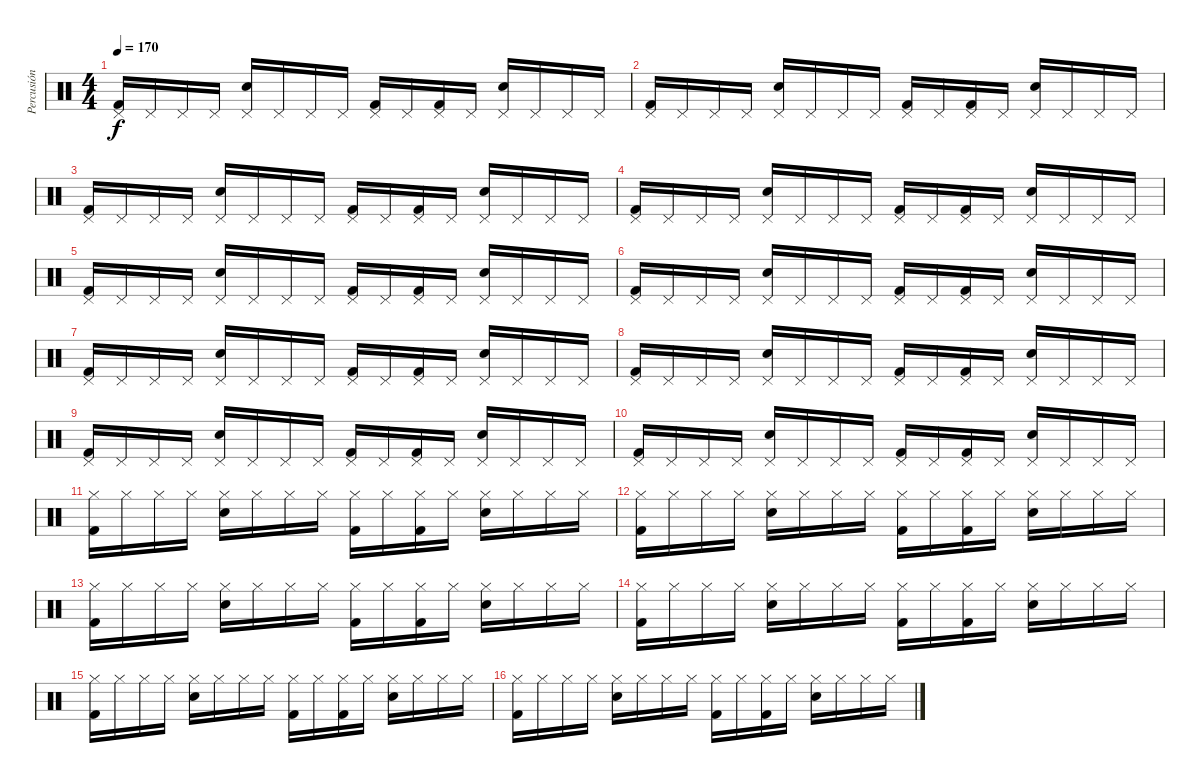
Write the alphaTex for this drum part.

\track ("Percusión" "Percusión") {instrument percussion}
\staff {score}
\articulation defaults
\ts (4 4)
\tempo 170
\clef neutral
\ks c
("Pedal Hi-Hat (hit)" "Kick (hit) 2").16{dy f} "Pedal Hi-Hat (hit)".16 "Pedal Hi-Hat (hit)".16 "Pedal Hi-Hat (hit)".16 ("Pedal Hi-Hat (hit)" "Electric Snare (hit)").16 "Pedal Hi-Hat (hit)".16 "Pedal Hi-Hat (hit)".16 "Pedal Hi-Hat (hit)".16 ("Pedal Hi-Hat (hit)" "Kick (hit) 2").16 "Pedal Hi-Hat (hit)".16 ("Pedal Hi-Hat (hit)" "Kick (hit) 2").16 "Pedal Hi-Hat (hit)".16 ("Pedal Hi-Hat (hit)" "Electric Snare (hit)").16 "Pedal Hi-Hat (hit)".16 "Pedal Hi-Hat (hit)".16 "Pedal Hi-Hat (hit)".16 |
("Pedal Hi-Hat (hit)" "Kick (hit) 2").16 "Pedal Hi-Hat (hit)".16 "Pedal Hi-Hat (hit)".16 "Pedal Hi-Hat (hit)".16 ("Pedal Hi-Hat (hit)" "Electric Snare (hit)").16 "Pedal Hi-Hat (hit)".16 "Pedal Hi-Hat (hit)".16 "Pedal Hi-Hat (hit)".16 ("Pedal Hi-Hat (hit)" "Kick (hit) 2").16 "Pedal Hi-Hat (hit)".16 ("Pedal Hi-Hat (hit)" "Kick (hit) 2").16 "Pedal Hi-Hat (hit)".16 ("Pedal Hi-Hat (hit)" "Electric Snare (hit)").16 "Pedal Hi-Hat (hit)".16 "Pedal Hi-Hat (hit)".16 "Pedal Hi-Hat (hit)".16 |
("Pedal Hi-Hat (hit)" "Kick (hit) 2").16 "Pedal Hi-Hat (hit)".16 "Pedal Hi-Hat (hit)".16 "Pedal Hi-Hat (hit)".16 ("Pedal Hi-Hat (hit)" "Electric Snare (hit)").16 "Pedal Hi-Hat (hit)".16 "Pedal Hi-Hat (hit)".16 "Pedal Hi-Hat (hit)".16 ("Pedal Hi-Hat (hit)" "Kick (hit) 2").16 "Pedal Hi-Hat (hit)".16 ("Pedal Hi-Hat (hit)" "Kick (hit) 2").16 "Pedal Hi-Hat (hit)".16 ("Pedal Hi-Hat (hit)" "Electric Snare (hit)").16 "Pedal Hi-Hat (hit)".16 "Pedal Hi-Hat (hit)".16 "Pedal Hi-Hat (hit)".16 |
("Pedal Hi-Hat (hit)" "Kick (hit) 2").16 "Pedal Hi-Hat (hit)".16 "Pedal Hi-Hat (hit)".16 "Pedal Hi-Hat (hit)".16 ("Pedal Hi-Hat (hit)" "Electric Snare (hit)").16 "Pedal Hi-Hat (hit)".16 "Pedal Hi-Hat (hit)".16 "Pedal Hi-Hat (hit)".16 ("Pedal Hi-Hat (hit)" "Kick (hit) 2").16 "Pedal Hi-Hat (hit)".16 ("Pedal Hi-Hat (hit)" "Kick (hit) 2").16 "Pedal Hi-Hat (hit)".16 ("Pedal Hi-Hat (hit)" "Electric Snare (hit)").16 "Pedal Hi-Hat (hit)".16 "Pedal Hi-Hat (hit)".16 "Pedal Hi-Hat (hit)".16 |
("Pedal Hi-Hat (hit)" "Kick (hit) 2").16 "Pedal Hi-Hat (hit)".16 "Pedal Hi-Hat (hit)".16 "Pedal Hi-Hat (hit)".16 ("Pedal Hi-Hat (hit)" "Electric Snare (hit)").16 "Pedal Hi-Hat (hit)".16 "Pedal Hi-Hat (hit)".16 "Pedal Hi-Hat (hit)".16 ("Pedal Hi-Hat (hit)" "Kick (hit) 2").16 "Pedal Hi-Hat (hit)".16 ("Pedal Hi-Hat (hit)" "Kick (hit) 2").16 "Pedal Hi-Hat (hit)".16 ("Pedal Hi-Hat (hit)" "Electric Snare (hit)").16 "Pedal Hi-Hat (hit)".16 "Pedal Hi-Hat (hit)".16 "Pedal Hi-Hat (hit)".16 |
("Pedal Hi-Hat (hit)" "Kick (hit) 2").16 "Pedal Hi-Hat (hit)".16 "Pedal Hi-Hat (hit)".16 "Pedal Hi-Hat (hit)".16 ("Pedal Hi-Hat (hit)" "Electric Snare (hit)").16 "Pedal Hi-Hat (hit)".16 "Pedal Hi-Hat (hit)".16 "Pedal Hi-Hat (hit)".16 ("Pedal Hi-Hat (hit)" "Kick (hit) 2").16 "Pedal Hi-Hat (hit)".16 ("Pedal Hi-Hat (hit)" "Kick (hit) 2").16 "Pedal Hi-Hat (hit)".16 ("Pedal Hi-Hat (hit)" "Electric Snare (hit)").16 "Pedal Hi-Hat (hit)".16 "Pedal Hi-Hat (hit)".16 "Pedal Hi-Hat (hit)".16 |
("Pedal Hi-Hat (hit)" "Kick (hit) 2").16 "Pedal Hi-Hat (hit)".16 "Pedal Hi-Hat (hit)".16 "Pedal Hi-Hat (hit)".16 ("Pedal Hi-Hat (hit)" "Electric Snare (hit)").16 "Pedal Hi-Hat (hit)".16 "Pedal Hi-Hat (hit)".16 "Pedal Hi-Hat (hit)".16 ("Pedal Hi-Hat (hit)" "Kick (hit) 2").16 "Pedal Hi-Hat (hit)".16 ("Pedal Hi-Hat (hit)" "Kick (hit) 2").16 "Pedal Hi-Hat (hit)".16 ("Pedal Hi-Hat (hit)" "Electric Snare (hit)").16 "Pedal Hi-Hat (hit)".16 "Pedal Hi-Hat (hit)".16 "Pedal Hi-Hat (hit)".16 |
("Pedal Hi-Hat (hit)" "Kick (hit) 2").16 "Pedal Hi-Hat (hit)".16 "Pedal Hi-Hat (hit)".16 "Pedal Hi-Hat (hit)".16 ("Pedal Hi-Hat (hit)" "Electric Snare (hit)").16 "Pedal Hi-Hat (hit)".16 "Pedal Hi-Hat (hit)".16 "Pedal Hi-Hat (hit)".16 ("Pedal Hi-Hat (hit)" "Kick (hit) 2").16 "Pedal Hi-Hat (hit)".16 ("Pedal Hi-Hat (hit)" "Kick (hit) 2").16 "Pedal Hi-Hat (hit)".16 ("Pedal Hi-Hat (hit)" "Electric Snare (hit)").16 "Pedal Hi-Hat (hit)".16 "Pedal Hi-Hat (hit)".16 "Pedal Hi-Hat (hit)".16 |
("Pedal Hi-Hat (hit)" "Kick (hit) 2").16 "Pedal Hi-Hat (hit)".16 "Pedal Hi-Hat (hit)".16 "Pedal Hi-Hat (hit)".16 ("Pedal Hi-Hat (hit)" "Electric Snare (hit)").16 "Pedal Hi-Hat (hit)".16 "Pedal Hi-Hat (hit)".16 "Pedal Hi-Hat (hit)".16 ("Pedal Hi-Hat (hit)" "Kick (hit) 2").16 "Pedal Hi-Hat (hit)".16 ("Pedal Hi-Hat (hit)" "Kick (hit) 2").16 "Pedal Hi-Hat (hit)".16 ("Pedal Hi-Hat (hit)" "Electric Snare (hit)").16 "Pedal Hi-Hat (hit)".16 "Pedal Hi-Hat (hit)".16 "Pedal Hi-Hat (hit)".16 |
("Pedal Hi-Hat (hit)" "Kick (hit) 2").16 "Pedal Hi-Hat (hit)".16 "Pedal Hi-Hat (hit)".16 "Pedal Hi-Hat (hit)".16 ("Pedal Hi-Hat (hit)" "Electric Snare (hit)").16 "Pedal Hi-Hat (hit)".16 "Pedal Hi-Hat (hit)".16 "Pedal Hi-Hat (hit)".16 ("Pedal Hi-Hat (hit)" "Kick (hit) 2").16 "Pedal Hi-Hat (hit)".16 ("Pedal Hi-Hat (hit)" "Kick (hit) 2").16 "Pedal Hi-Hat (hit)".16 ("Pedal Hi-Hat (hit)" "Electric Snare (hit)").16 "Pedal Hi-Hat (hit)".16 "Pedal Hi-Hat (hit)".16 "Pedal Hi-Hat (hit)".16 |
("Hi-Hat (closed)" "Kick (hit) 2").16 "Hi-Hat (closed)".16 "Hi-Hat (closed)".16 "Hi-Hat (closed)".16 ("Hi-Hat (closed)" "Electric Snare (hit)").16 "Hi-Hat (closed)".16 "Hi-Hat (closed)".16 "Hi-Hat (closed)".16 ("Hi-Hat (closed)" "Kick (hit) 2").16 "Hi-Hat (closed)".16 ("Hi-Hat (closed)" "Kick (hit) 2").16 "Hi-Hat (closed)".16 ("Hi-Hat (closed)" "Electric Snare (hit)").16 "Hi-Hat (closed)".16 "Hi-Hat (closed)".16 "Hi-Hat (closed)".16 |
("Hi-Hat (closed)" "Kick (hit) 2").16 "Hi-Hat (closed)".16 "Hi-Hat (closed)".16 "Hi-Hat (closed)".16 ("Hi-Hat (closed)" "Electric Snare (hit)").16 "Hi-Hat (closed)".16 "Hi-Hat (closed)".16 "Hi-Hat (closed)".16 ("Hi-Hat (closed)" "Kick (hit) 2").16 "Hi-Hat (closed)".16 ("Hi-Hat (closed)" "Kick (hit) 2").16 "Hi-Hat (closed)".16 ("Hi-Hat (closed)" "Electric Snare (hit)").16 "Hi-Hat (closed)".16 "Hi-Hat (closed)".16 "Hi-Hat (closed)".16 |
("Hi-Hat (closed)" "Kick (hit) 2").16 "Hi-Hat (closed)".16 "Hi-Hat (closed)".16 "Hi-Hat (closed)".16 ("Hi-Hat (closed)" "Electric Snare (hit)").16 "Hi-Hat (closed)".16 "Hi-Hat (closed)".16 "Hi-Hat (closed)".16 ("Hi-Hat (closed)" "Kick (hit) 2").16 "Hi-Hat (closed)".16 ("Hi-Hat (closed)" "Kick (hit) 2").16 "Hi-Hat (closed)".16 ("Hi-Hat (closed)" "Electric Snare (hit)").16 "Hi-Hat (closed)".16 "Hi-Hat (closed)".16 "Hi-Hat (closed)".16 |
("Hi-Hat (closed)" "Kick (hit) 2").16 "Hi-Hat (closed)".16 "Hi-Hat (closed)".16 "Hi-Hat (closed)".16 ("Hi-Hat (closed)" "Electric Snare (hit)").16 "Hi-Hat (closed)".16 "Hi-Hat (closed)".16 "Hi-Hat (closed)".16 ("Hi-Hat (closed)" "Kick (hit) 2").16 "Hi-Hat (closed)".16 ("Hi-Hat (closed)" "Kick (hit) 2").16 "Hi-Hat (closed)".16 ("Hi-Hat (closed)" "Electric Snare (hit)").16 "Hi-Hat (closed)".16 "Hi-Hat (closed)".16 "Hi-Hat (closed)".16 |
("Hi-Hat (closed)" "Kick (hit) 2").16 "Hi-Hat (closed)".16 "Hi-Hat (closed)".16 "Hi-Hat (closed)".16 ("Hi-Hat (closed)" "Electric Snare (hit)").16 "Hi-Hat (closed)".16 "Hi-Hat (closed)".16 "Hi-Hat (closed)".16 ("Hi-Hat (closed)" "Kick (hit) 2").16 "Hi-Hat (closed)".16 ("Hi-Hat (closed)" "Kick (hit) 2").16 "Hi-Hat (closed)".16 ("Hi-Hat (closed)" "Electric Snare (hit)").16 "Hi-Hat (closed)".16 "Hi-Hat (closed)".16 "Hi-Hat (closed)".16 |
("Hi-Hat (closed)" "Kick (hit) 2").16 "Hi-Hat (closed)".16 "Hi-Hat (closed)".16 "Hi-Hat (closed)".16 ("Hi-Hat (closed)" "Electric Snare (hit)").16 "Hi-Hat (closed)".16 "Hi-Hat (closed)".16 "Hi-Hat (closed)".16 ("Hi-Hat (closed)" "Kick (hit) 2").16 "Hi-Hat (closed)".16 ("Hi-Hat (closed)" "Kick (hit) 2").16 "Hi-Hat (closed)".16 ("Hi-Hat (closed)" "Electric Snare (hit)").16 "Hi-Hat (closed)".16 "Hi-Hat (closed)".16 "Hi-Hat (closed)".16
